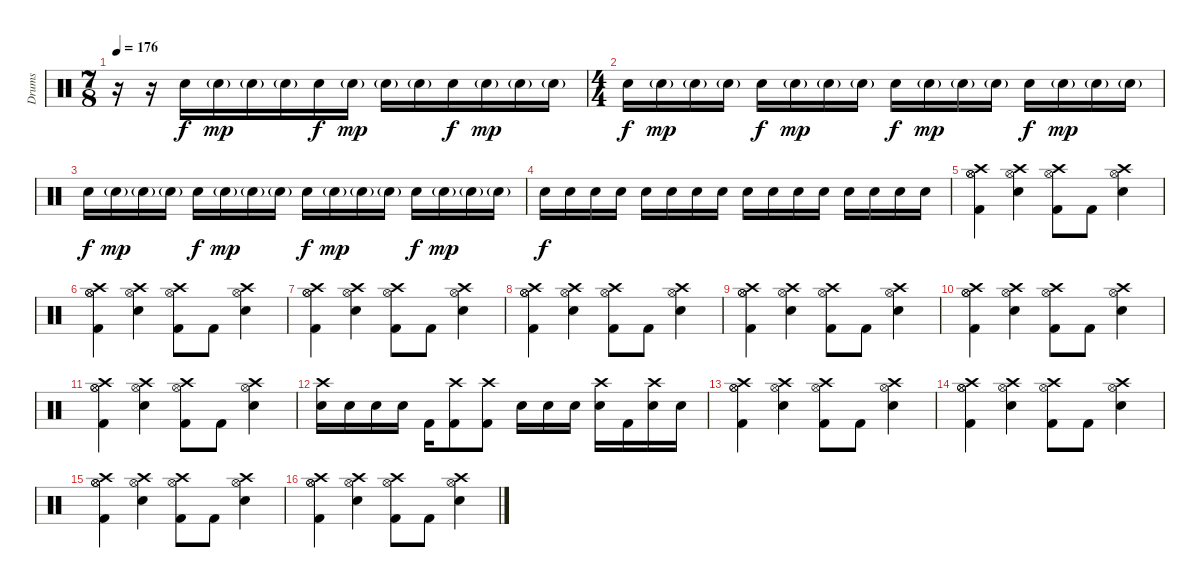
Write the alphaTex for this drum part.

\track ("Drums" "Drums") {instrument percussion}
\staff {score}
\articulation defaults
\ts (7 8)
\tempo 176
\clef neutral
\ks c
r.16{dy f} r.16 "Snare (hit) 2".16{volume 8} "Snare (hit) 2"{g}.16{dy mp} "Snare (hit) 2"{g}.16 "Snare (hit) 2"{g}.16 "Snare (hit) 2".16{dy f} "Snare (hit) 2"{g}.16{dy mp} "Snare (hit) 2"{g}.16 "Snare (hit) 2"{g}.16 "Snare (hit) 2".16{dy f volume 10} "Snare (hit) 2"{g}.16{dy mp} "Snare (hit) 2"{g}.16 "Snare (hit) 2"{g}.16 |
\ts (4 4)
"Snare (hit) 2".16{dy f volume 11} "Snare (hit) 2"{g}.16{dy mp} "Snare (hit) 2"{g}.16 "Snare (hit) 2"{g}.16 "Snare (hit) 2".16{dy f} "Snare (hit) 2"{g}.16{dy mp} "Snare (hit) 2"{g}.16 "Snare (hit) 2"{g}.16 "Snare (hit) 2".16{dy f volume 12} "Snare (hit) 2"{g}.16{dy mp} "Snare (hit) 2"{g}.16 "Snare (hit) 2"{g}.16 "Snare (hit) 2".16{dy f} "Snare (hit) 2"{g}.16{dy mp} "Snare (hit) 2"{g}.16 "Snare (hit) 2"{g}.16 |
"Snare (hit) 2".16{dy f volume 13} "Snare (hit) 2"{g}.16{dy mp} "Snare (hit) 2"{g}.16 "Snare (hit) 2"{g}.16 "Snare (hit) 2".16{dy f} "Snare (hit) 2"{g}.16{dy mp} "Snare (hit) 2"{g}.16 "Snare (hit) 2"{g}.16 "Snare (hit) 2".16{dy f volume 14} "Snare (hit) 2"{g}.16{dy mp} "Snare (hit) 2"{g}.16 "Snare (hit) 2"{g}.16 "Snare (hit) 2".16{dy f} "Snare (hit) 2"{g}.16{dy mp} "Snare (hit) 2"{g}.16 "Snare (hit) 2"{g}.16 |
"Snare (hit) 2".16{dy f volume 12} "Snare (hit) 2".16 "Snare (hit) 2".16 "Snare (hit) 2".16 "Snare (hit) 2".16 "Snare (hit) 2".16 "Snare (hit) 2".16 "Snare (hit) 2".16 "Snare (hit) 2".16 "Snare (hit) 2".16 "Snare (hit) 2".16 "Snare (hit) 2".16 "Snare (hit) 2".16 "Snare (hit) 2".16 "Snare (hit) 2".16 "Snare (hit) 2".16 |
("Kick (hit) 2" "Hi-Hat (open)" "Hi-Hat (open)" "Crash high (hit)").4 ("Crash high (hit)" "Hi-Hat (open)" "Snare (hit) 2").4 ("Hi-Hat (open)" "Crash high (hit)" "Kick (hit) 2").8 "Kick (hit) 2".8 ("Hi-Hat (open)" "Crash high (hit)" "Snare (hit) 2").4 |
("Kick (hit) 2" "Hi-Hat (open)" "Hi-Hat (open)" "Crash high (hit)").4 ("Crash high (hit)" "Hi-Hat (open)" "Snare (hit) 2").4 ("Hi-Hat (open)" "Crash high (hit)" "Kick (hit) 2").8 "Kick (hit) 2".8 ("Hi-Hat (open)" "Crash high (hit)" "Snare (hit) 2").4 |
("Kick (hit) 2" "Hi-Hat (open)" "Hi-Hat (open)" "Crash high (hit)").4 ("Crash high (hit)" "Hi-Hat (open)" "Snare (hit) 2").4 ("Hi-Hat (open)" "Crash high (hit)" "Kick (hit) 2").8 "Kick (hit) 2".8 ("Hi-Hat (open)" "Crash high (hit)" "Snare (hit) 2").4 |
("Kick (hit) 2" "Hi-Hat (open)" "Hi-Hat (open)" "Crash high (hit)").4 ("Crash high (hit)" "Hi-Hat (open)" "Snare (hit) 2").4 ("Hi-Hat (open)" "Crash high (hit)" "Kick (hit) 2").8 "Kick (hit) 2".8 ("Hi-Hat (open)" "Crash high (hit)" "Snare (hit) 2").4 |
("Kick (hit) 2" "Hi-Hat (open)" "Hi-Hat (open)" "Crash high (hit)").4 ("Crash high (hit)" "Hi-Hat (open)" "Snare (hit) 2").4 ("Hi-Hat (open)" "Crash high (hit)" "Kick (hit) 2").8 "Kick (hit) 2".8 ("Hi-Hat (open)" "Crash high (hit)" "Snare (hit) 2").4 |
("Kick (hit) 2" "Hi-Hat (open)" "Hi-Hat (open)" "Crash high (hit)").4 ("Crash high (hit)" "Hi-Hat (open)" "Snare (hit) 2").4 ("Hi-Hat (open)" "Crash high (hit)" "Kick (hit) 2").8 "Kick (hit) 2".8 ("Hi-Hat (open)" "Crash high (hit)" "Snare (hit) 2").4 |
("Kick (hit) 2" "Hi-Hat (open)" "Hi-Hat (open)" "Crash high (hit)").4 ("Crash high (hit)" "Hi-Hat (open)" "Snare (hit) 2").4 ("Hi-Hat (open)" "Crash high (hit)" "Kick (hit) 2").8 "Kick (hit) 2".8 ("Hi-Hat (open)" "Crash high (hit)" "Snare (hit) 2").4 |
("Crash high (hit)" "Snare (hit) 2").16 "Snare (hit) 2".16 "Snare (hit) 2".16 "Snare (hit) 2".16 "Kick (hit) 2".16 ("Crash high (hit)" "Kick (hit) 2").8 ("Crash high (hit)" "Kick (hit) 2").8 "Snare (hit) 2".16 "Snare (hit) 2".16 "Snare (hit) 2".16 ("Crash high (hit)" "Snare (hit) 2").16 "Kick (hit) 2".16 ("Crash high (hit)" "Snare (hit) 2").16 "Snare (hit) 2".16 |
("Kick (hit) 2" "Hi-Hat (open)" "Hi-Hat (open)" "Crash high (hit)").4 ("Crash high (hit)" "Hi-Hat (open)" "Snare (hit) 2").4 ("Hi-Hat (open)" "Crash high (hit)" "Kick (hit) 2").8 "Kick (hit) 2".8 ("Hi-Hat (open)" "Crash high (hit)" "Snare (hit) 2").4 |
("Kick (hit) 2" "Hi-Hat (open)" "Hi-Hat (open)" "Crash high (hit)").4 ("Crash high (hit)" "Hi-Hat (open)" "Snare (hit) 2").4 ("Hi-Hat (open)" "Crash high (hit)" "Kick (hit) 2").8 "Kick (hit) 2".8 ("Hi-Hat (open)" "Crash high (hit)" "Snare (hit) 2").4 |
("Kick (hit) 2" "Hi-Hat (open)" "Hi-Hat (open)" "Crash high (hit)").4 ("Crash high (hit)" "Hi-Hat (open)" "Snare (hit) 2").4 ("Hi-Hat (open)" "Crash high (hit)" "Kick (hit) 2").8 "Kick (hit) 2".8 ("Hi-Hat (open)" "Crash high (hit)" "Snare (hit) 2").4 |
("Kick (hit) 2" "Hi-Hat (open)" "Hi-Hat (open)" "Crash high (hit)").4 ("Crash high (hit)" "Hi-Hat (open)" "Snare (hit) 2").4 ("Hi-Hat (open)" "Crash high (hit)" "Kick (hit) 2").8 "Kick (hit) 2".8 ("Hi-Hat (open)" "Crash high (hit)" "Snare (hit) 2").4
